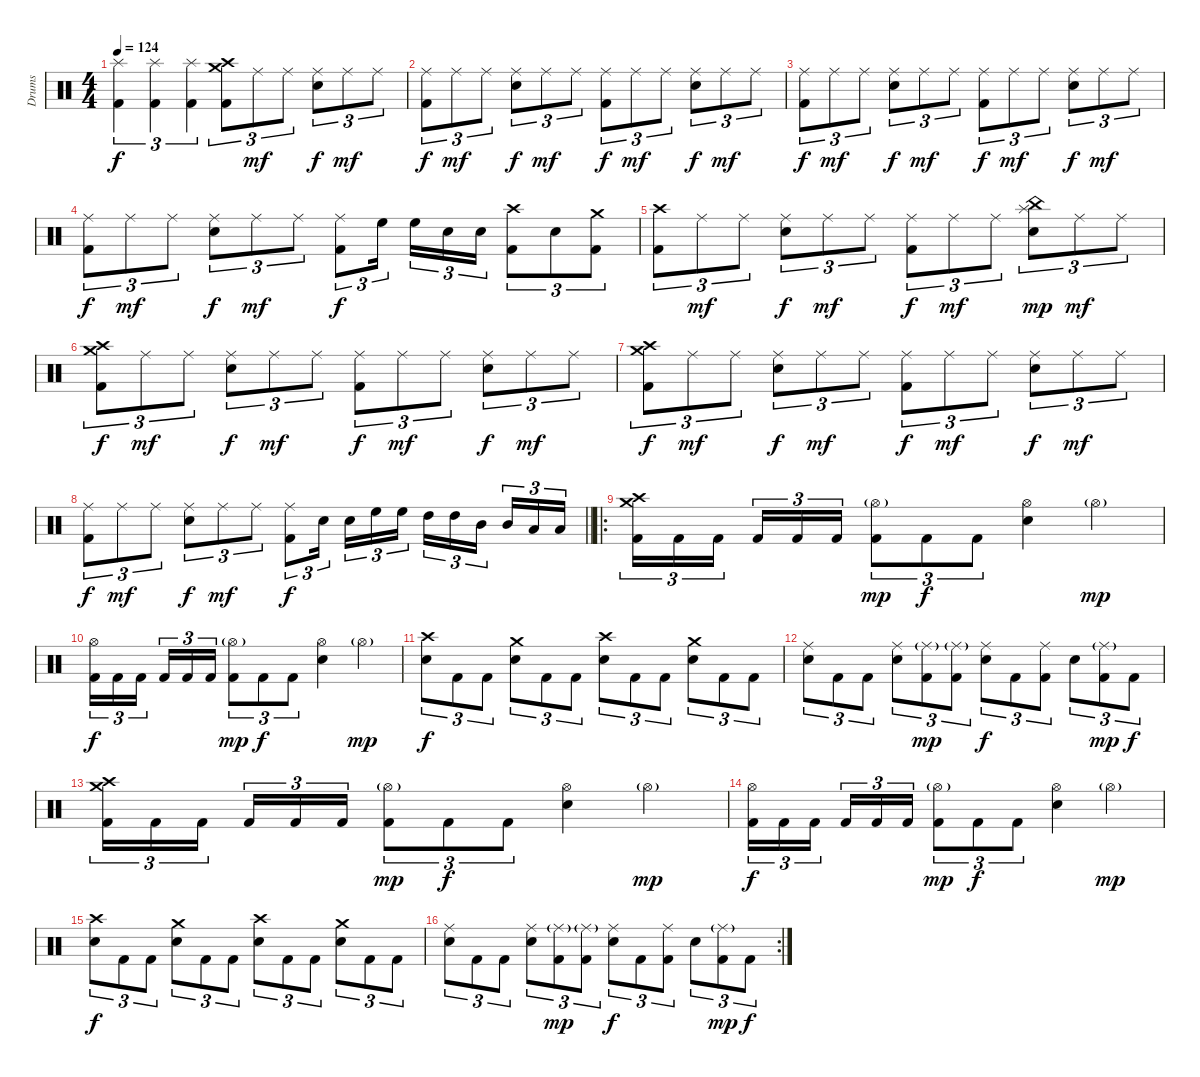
\track ("Drums" "Drums") {instrument percussion}
\staff {score}
\articulation defaults
\ts (4 4)
\tempo 124
\clef neutral
\ks c
("Splash (hit)" "Kick (hit) 2").4{tu (3 2) dy f} ("Splash (hit)" "Kick (hit) 2").4{tu (3 2)} ("Splash (hit)" "Kick (hit) 2").4{tu (3 2)} ("Crash high (hit)" "Crash medium (hit)" "Kick (hit) 2").8{tu (3 2)} "Ride (middle)".8{tu (3 2) dy mf} "Ride (middle)".8{tu (3 2)} ("Ride (middle)" "Electric Snare (hit)").8{tu (3 2) dy f} "Ride (middle)".8{tu (3 2) dy mf} "Ride (middle)".8{tu (3 2)} |
("Ride (middle)" "Kick (hit) 2").8{tu (3 2) dy f} "Ride (middle)".8{tu (3 2) dy mf} "Ride (middle)".8{tu (3 2)} ("Ride (middle)" "Electric Snare (hit)").8{tu (3 2) dy f} "Ride (middle)".8{tu (3 2) dy mf} "Ride (middle)".8{tu (3 2)} ("Ride (middle)" "Kick (hit) 2").8{tu (3 2) dy f} "Ride (middle)".8{tu (3 2) dy mf} "Ride (middle)".8{tu (3 2)} ("Ride (middle)" "Electric Snare (hit)").8{tu (3 2) dy f} "Ride (middle)".8{tu (3 2) dy mf} "Ride (middle)".8{tu (3 2)} |
("Ride (middle)" "Kick (hit) 2").8{tu (3 2) dy f} "Ride (middle)".8{tu (3 2) dy mf} "Ride (middle)".8{tu (3 2)} ("Ride (middle)" "Electric Snare (hit)").8{tu (3 2) dy f} "Ride (middle)".8{tu (3 2) dy mf} "Ride (middle)".8{tu (3 2)} ("Ride (middle)" "Kick (hit) 2").8{tu (3 2) dy f} "Ride (middle)".8{tu (3 2) dy mf} "Ride (middle)".8{tu (3 2)} ("Ride (middle)" "Electric Snare (hit)").8{tu (3 2) dy f} "Ride (middle)".8{tu (3 2) dy mf} "Ride (middle)".8{tu (3 2)} |
("Ride (middle)" "Kick (hit) 2").8{tu (3 2) dy f} "Ride (middle)".8{tu (3 2) dy mf} "Ride (middle)".8{tu (3 2)} ("Ride (middle)" "Electric Snare (hit)").8{tu (3 2) dy f} "Ride (middle)".8{tu (3 2) dy mf} "Ride (middle)".8{tu (3 2)} ("Ride (middle)" "Kick (hit) 2").8{tu (3 2) dy f} "High Floor Tom (hit)".16{tu (3 2)} "High Floor Tom (hit)".16{tu (3 2)} "Electric Snare (hit)".16{tu (3 2)} "Electric Snare (hit)".16{tu (3 2)} ("Crash high (hit)" "Kick (hit) 2").8{tu (3 2)} "Electric Snare (hit)".8{tu (3 2)} ("Crash medium (hit)" "Kick (hit) 2").8{tu (3 2)} |
("Crash high (hit)" "Kick (hit) 2").8{tu (3 2)} "Ride (middle)".8{tu (3 2) dy mf} "Ride (middle)".8{tu (3 2)} ("Ride (middle)" "Electric Snare (hit)").8{tu (3 2) dy f} "Ride (middle)".8{tu (3 2) dy mf} "Ride (middle)".8{tu (3 2)} ("Ride (middle)" "Kick (hit) 2").8{tu (3 2) dy f} "Ride (middle)".8{tu (3 2) dy mf} "Ride (middle)".8{tu (3 2)} ("China (hit)" "Splash (hit)" "Electric Snare (hit)").8{tu (3 2) dy mp} "Ride (middle)".8{tu (3 2) dy mf} "Ride (middle)".8{tu (3 2)} |
("Crash high (hit)" "Crash medium (hit)" "Kick (hit) 2").8{tu (3 2) dy f} "Ride (middle)".8{tu (3 2) dy mf} "Ride (middle)".8{tu (3 2)} ("Ride (middle)" "Electric Snare (hit)").8{tu (3 2) dy f} "Ride (middle)".8{tu (3 2) dy mf} "Ride (middle)".8{tu (3 2)} ("Ride (middle)" "Kick (hit) 2").8{tu (3 2) dy f} "Ride (middle)".8{tu (3 2) dy mf} "Ride (middle)".8{tu (3 2)} ("Ride (middle)" "Electric Snare (hit)").8{tu (3 2) dy f} "Ride (middle)".8{tu (3 2) dy mf} "Ride (middle)".8{tu (3 2)} |
("Crash high (hit)" "Crash medium (hit)" "Kick (hit) 2").8{tu (3 2) dy f} "Ride (middle)".8{tu (3 2) dy mf} "Ride (middle)".8{tu (3 2)} ("Ride (middle)" "Electric Snare (hit)").8{tu (3 2) dy f} "Ride (middle)".8{tu (3 2) dy mf} "Ride (middle)".8{tu (3 2)} ("Ride (middle)" "Kick (hit) 2").8{tu (3 2) dy f} "Ride (middle)".8{tu (3 2) dy mf} "Ride (middle)".8{tu (3 2)} ("Ride (middle)" "Electric Snare (hit)").8{tu (3 2) dy f} "Ride (middle)".8{tu (3 2) dy mf} "Ride (middle)".8{tu (3 2)} |
\barLineRight lightlight
("Ride (middle)" "Kick (hit) 2").8{tu (3 2) dy f} "Ride (middle)".8{tu (3 2) dy mf} "Ride (middle)".8{tu (3 2)} ("Ride (middle)" "Electric Snare (hit)").8{tu (3 2) dy f} "Ride (middle)".8{tu (3 2) dy mf} "Ride (middle)".8{tu (3 2)} ("Ride (middle)" "Kick (hit) 2").8{tu (3 2) dy f} "Electric Snare (hit)".16{tu (3 2)} "Electric Snare (hit)".16{tu (3 2)} "High Floor Tom (hit)".16{tu (3 2)} "High Floor Tom (hit)".16{tu (3 2)} "High Tom (hit)".16{tu (3 2)} "High Tom (hit)".16{tu (3 2)} "Mid Tom (hit)".16{tu (3 2)} "Mid Tom (hit)".16{tu (3 2)} "Low Tom (hit)".16{tu (3 2)} "Low Tom (hit)".16{tu (3 2)} |
\ro
("Crash high (hit)" "Crash medium (hit)" "Kick (hit) 2").16{tu (3 2)} "Kick (hit) 2".16{tu (3 2)} "Kick (hit) 2".16{tu (3 2)} "Kick (hit) 2".16{tu (3 2)} "Kick (hit) 2".16{tu (3 2)} "Kick (hit) 2".16{tu (3 2)} ("Hi-Hat (open)"{g} "Kick (hit) 2").8{tu (3 2) dy mp} "Kick (hit) 2".8{tu (3 2) dy f} "Kick (hit) 2".8{tu (3 2)} ("Hi-Hat (open)" "Electric Snare (hit)").4 "Hi-Hat (open)"{g}.4{dy mp} |
("Hi-Hat (open)" "Kick (hit) 2").16{tu (3 2) dy f} "Kick (hit) 2".16{tu (3 2)} "Kick (hit) 2".16{tu (3 2)} "Kick (hit) 2".16{tu (3 2)} "Kick (hit) 2".16{tu (3 2)} "Kick (hit) 2".16{tu (3 2)} ("Hi-Hat (open)"{g} "Kick (hit) 2").8{tu (3 2) dy mp} "Kick (hit) 2".8{tu (3 2) dy f} "Kick (hit) 2".8{tu (3 2)} ("Hi-Hat (open)" "Electric Snare (hit)").4 "Hi-Hat (open)"{g}.4{dy mp} |
("Crash high (hit)" "Electric Snare (hit)").8{tu (3 2) dy f} "Kick (hit) 2".8{tu (3 2)} "Kick (hit) 2".8{tu (3 2)} ("Crash medium (hit)" "Electric Snare (hit)").8{tu (3 2)} "Kick (hit) 2".8{tu (3 2)} "Kick (hit) 2".8{tu (3 2)} ("Crash high (hit)" "Electric Snare (hit)").8{tu (3 2)} "Kick (hit) 2".8{tu (3 2)} "Kick (hit) 2".8{tu (3 2)} ("Crash medium (hit)" "Electric Snare (hit)").8{tu (3 2)} "Kick (hit) 2".8{tu (3 2)} "Kick (hit) 2".8{tu (3 2)} |
("Ride (middle)" "Electric Snare (hit)").8{tu (3 2)} "Kick (hit) 2".8{tu (3 2)} "Kick (hit) 2".8{tu (3 2)} ("Ride (middle)" "Electric Snare (hit)").8{tu (3 2)} ("Ride (middle)"{g} "Kick (hit) 2").8{tu (3 2) dy mp} ("Ride (middle)"{g} "Kick (hit) 2").8{tu (3 2)} ("Ride (middle)" "Electric Snare (hit)").8{tu (3 2) dy f} "Kick (hit) 2".8{tu (3 2)} ("Ride (middle)" "Kick (hit) 2").8{tu (3 2)} "Electric Snare (hit)".8{tu (3 2)} ("Ride (middle)"{g} "Kick (hit) 2").8{tu (3 2) dy mp} "Kick (hit) 2".8{tu (3 2) dy f} |
("Crash high (hit)" "Crash medium (hit)" "Kick (hit) 2").16{tu (3 2)} "Kick (hit) 2".16{tu (3 2)} "Kick (hit) 2".16{tu (3 2)} "Kick (hit) 2".16{tu (3 2)} "Kick (hit) 2".16{tu (3 2)} "Kick (hit) 2".16{tu (3 2)} ("Hi-Hat (open)"{g} "Kick (hit) 2").8{tu (3 2) dy mp} "Kick (hit) 2".8{tu (3 2) dy f} "Kick (hit) 2".8{tu (3 2)} ("Hi-Hat (open)" "Electric Snare (hit)").4 "Hi-Hat (open)"{g}.4{dy mp} |
("Hi-Hat (open)" "Kick (hit) 2").16{tu (3 2) dy f} "Kick (hit) 2".16{tu (3 2)} "Kick (hit) 2".16{tu (3 2)} "Kick (hit) 2".16{tu (3 2)} "Kick (hit) 2".16{tu (3 2)} "Kick (hit) 2".16{tu (3 2)} ("Hi-Hat (open)"{g} "Kick (hit) 2").8{tu (3 2) dy mp} "Kick (hit) 2".8{tu (3 2) dy f} "Kick (hit) 2".8{tu (3 2)} ("Hi-Hat (open)" "Electric Snare (hit)").4 "Hi-Hat (open)"{g}.4{dy mp} |
("Crash high (hit)" "Electric Snare (hit)").8{tu (3 2) dy f} "Kick (hit) 2".8{tu (3 2)} "Kick (hit) 2".8{tu (3 2)} ("Crash medium (hit)" "Electric Snare (hit)").8{tu (3 2)} "Kick (hit) 2".8{tu (3 2)} "Kick (hit) 2".8{tu (3 2)} ("Crash high (hit)" "Electric Snare (hit)").8{tu (3 2)} "Kick (hit) 2".8{tu (3 2)} "Kick (hit) 2".8{tu (3 2)} ("Crash medium (hit)" "Electric Snare (hit)").8{tu (3 2)} "Kick (hit) 2".8{tu (3 2)} "Kick (hit) 2".8{tu (3 2)} |
\rc 2
("Ride (middle)" "Electric Snare (hit)").8{tu (3 2)} "Kick (hit) 2".8{tu (3 2)} "Kick (hit) 2".8{tu (3 2)} ("Ride (middle)" "Electric Snare (hit)").8{tu (3 2)} ("Ride (middle)"{g} "Kick (hit) 2").8{tu (3 2) dy mp} ("Ride (middle)"{g} "Kick (hit) 2").8{tu (3 2)} ("Ride (middle)" "Electric Snare (hit)").8{tu (3 2) dy f} "Kick (hit) 2".8{tu (3 2)} ("Ride (middle)" "Kick (hit) 2").8{tu (3 2)} "Electric Snare (hit)".8{tu (3 2)} ("Ride (middle)"{g} "Kick (hit) 2").8{tu (3 2) dy mp} "Kick (hit) 2".8{tu (3 2) dy f}
